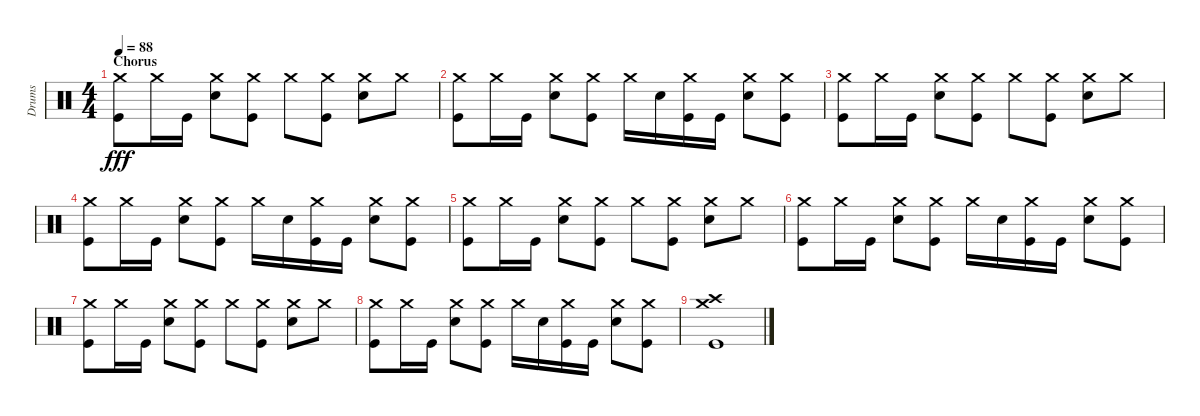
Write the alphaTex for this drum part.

\track ("Drums" "Drums") {instrument percussion}
\staff {score}
\articulation defaults
\ts (4 4)
\section ("" "Chorus")
\tempo 88
\clef neutral
\ks c
("Crash medium (hit)" "Kick (hit)").8{dy fff} "Crash medium (hit)".16 "Kick (hit)".16 ("Crash medium (hit)" "Snare (hit) 2").8 ("Crash medium (hit)" "Kick (hit)").8 "Crash medium (hit)".8 ("Crash medium (hit)" "Kick (hit)").8 ("Crash medium (hit)" "Snare (hit) 2").8 "Crash medium (hit)".8 |
("Crash medium (hit)" "Kick (hit)").8 "Crash medium (hit)".16 "Kick (hit)".16 ("Crash medium (hit)" "Snare (hit) 2").8 ("Crash medium (hit)" "Kick (hit)").8 "Crash medium (hit)".16 "Snare (hit) 2".16 ("Crash medium (hit)" "Kick (hit)").16 "Kick (hit)".16 ("Crash medium (hit)" "Snare (hit) 2").8 ("Crash medium (hit)" "Kick (hit)").8 |
("Crash medium (hit)" "Kick (hit)").8 "Crash medium (hit)".16 "Kick (hit)".16 ("Crash medium (hit)" "Snare (hit) 2").8 ("Crash medium (hit)" "Kick (hit)").8 "Crash medium (hit)".8 ("Crash medium (hit)" "Kick (hit)").8 ("Crash medium (hit)" "Snare (hit) 2").8 "Crash medium (hit)".8 |
("Crash medium (hit)" "Kick (hit)").8 "Crash medium (hit)".16 "Kick (hit)".16 ("Crash medium (hit)" "Snare (hit) 2").8 ("Crash medium (hit)" "Kick (hit)").8 "Crash medium (hit)".16 "Snare (hit) 2".16 ("Crash medium (hit)" "Kick (hit)").16 "Kick (hit)".16 ("Crash medium (hit)" "Snare (hit) 2").8 ("Crash medium (hit)" "Kick (hit)").8 |
("Crash medium (hit)" "Kick (hit)").8 "Crash medium (hit)".16 "Kick (hit)".16 ("Crash medium (hit)" "Snare (hit) 2").8 ("Crash medium (hit)" "Kick (hit)").8 "Crash medium (hit)".8 ("Crash medium (hit)" "Kick (hit)").8 ("Crash medium (hit)" "Snare (hit) 2").8 "Crash medium (hit)".8 |
("Crash medium (hit)" "Kick (hit)").8 "Crash medium (hit)".16 "Kick (hit)".16 ("Crash medium (hit)" "Snare (hit) 2").8 ("Crash medium (hit)" "Kick (hit)").8 "Crash medium (hit)".16 "Snare (hit) 2".16 ("Crash medium (hit)" "Kick (hit)").16 "Kick (hit)".16 ("Crash medium (hit)" "Snare (hit) 2").8 ("Crash medium (hit)" "Kick (hit)").8 |
("Crash medium (hit)" "Kick (hit)").8 "Crash medium (hit)".16 "Kick (hit)".16 ("Crash medium (hit)" "Snare (hit) 2").8 ("Crash medium (hit)" "Kick (hit)").8 "Crash medium (hit)".8 ("Crash medium (hit)" "Kick (hit)").8 ("Crash medium (hit)" "Snare (hit) 2").8 "Crash medium (hit)".8 |
("Crash medium (hit)" "Kick (hit)").8 "Crash medium (hit)".16 "Kick (hit)".16 ("Crash medium (hit)" "Snare (hit) 2").8 ("Crash medium (hit)" "Kick (hit)").8 "Crash medium (hit)".16 "Snare (hit) 2".16 ("Crash medium (hit)" "Kick (hit)").16 "Kick (hit)".16 ("Crash medium (hit)" "Snare (hit) 2").8 ("Crash medium (hit)" "Kick (hit)").8 |
("Crash medium (hit)" "Crash high (hit)" "Kick (hit)").1
